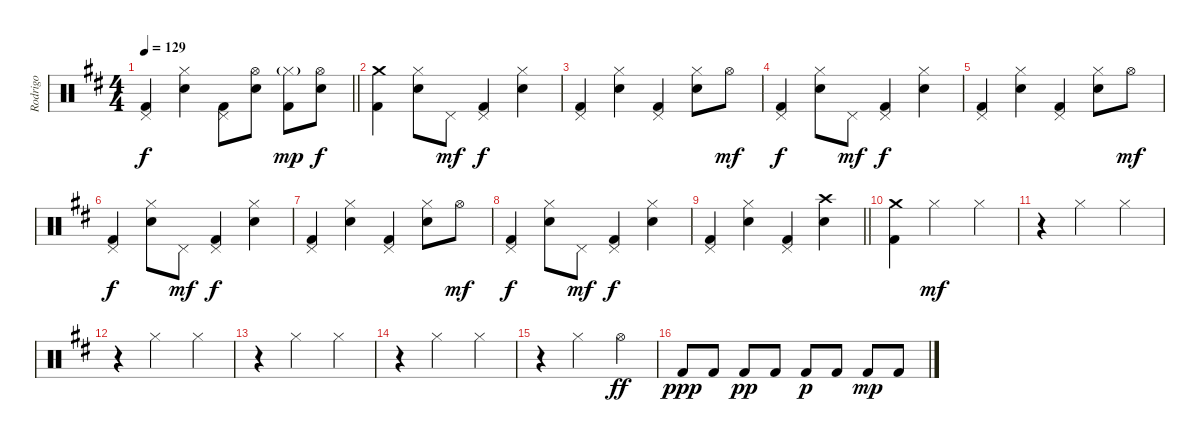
\track ("Rodrigo " "Rodrigo ") {instrument percussion}
\staff {score}
\articulation defaults
\ts (4 4)
\tempo 129
\clef neutral
\barLineRight lightlight
\ks d
("Pedal Hi-Hat (hit)" "Kick (hit) 2").4{dy f} ("Hi-Hat (closed)" "Electric Snare (hit)").4 ("Pedal Hi-Hat (hit)" "Kick (hit) 2").8 ("Hi-Hat (open)" "Electric Snare (hit)").8 ("Hi-Hat (closed)"{g} "Kick (hit) 2").8{dy mp} ("Hi-Hat (open)" "Electric Snare (hit)").8{dy f} |
("Crash medium (hit)" "Kick (hit) 2").4 ("Hi-Hat (closed)" "Electric Snare (hit)").8 "Pedal Hi-Hat (hit)".8{dy mf} ("Pedal Hi-Hat (hit)" "Kick (hit) 2").4{dy f} ("Hi-Hat (closed)" "Electric Snare (hit)").4 |
("Pedal Hi-Hat (hit)" "Kick (hit) 2").4 ("Hi-Hat (closed)" "Electric Snare (hit)").4 ("Pedal Hi-Hat (hit)" "Kick (hit) 2").4 ("Hi-Hat (closed)" "Electric Snare (hit)").8 "Hi-Hat (open)".8{dy mf} |
("Pedal Hi-Hat (hit)" "Kick (hit) 2").4{dy f} ("Hi-Hat (closed)" "Electric Snare (hit)").8 "Pedal Hi-Hat (hit)".8{dy mf} ("Pedal Hi-Hat (hit)" "Kick (hit) 2").4{dy f} ("Hi-Hat (closed)" "Electric Snare (hit)").4 |
("Pedal Hi-Hat (hit)" "Kick (hit) 2").4 ("Hi-Hat (closed)" "Electric Snare (hit)").4 ("Pedal Hi-Hat (hit)" "Kick (hit) 2").4 ("Hi-Hat (closed)" "Electric Snare (hit)").8 "Hi-Hat (open)".8{dy mf} |
("Pedal Hi-Hat (hit)" "Kick (hit) 2").4{dy f} ("Hi-Hat (closed)" "Electric Snare (hit)").8 "Pedal Hi-Hat (hit)".8{dy mf} ("Pedal Hi-Hat (hit)" "Kick (hit) 2").4{dy f} ("Hi-Hat (closed)" "Electric Snare (hit)").4 |
("Pedal Hi-Hat (hit)" "Kick (hit) 2").4 ("Hi-Hat (closed)" "Electric Snare (hit)").4 ("Pedal Hi-Hat (hit)" "Kick (hit) 2").4 ("Hi-Hat (closed)" "Electric Snare (hit)").8 "Hi-Hat (open)".8{dy mf} |
("Pedal Hi-Hat (hit)" "Kick (hit) 2").4{dy f} ("Hi-Hat (closed)" "Electric Snare (hit)").8 "Pedal Hi-Hat (hit)".8{dy mf} ("Pedal Hi-Hat (hit)" "Kick (hit) 2").4{dy f} ("Hi-Hat (closed)" "Electric Snare (hit)").4 |
\barLineRight lightlight
("Pedal Hi-Hat (hit)" "Kick (hit) 2").4 ("Hi-Hat (closed)" "Electric Snare (hit)").4 ("Pedal Hi-Hat (hit)" "Kick (hit) 2").4 ("Crash high (hit)" "Electric Snare (hit)").4 |
("Crash medium (hit)" "Kick (hit) 2").4 "Hi-Hat (closed)".2{dy mf} "Hi-Hat (closed)".4 |
r.4 "Hi-Hat (closed)".2 "Hi-Hat (closed)".4 |
r.4 "Hi-Hat (closed)".2 "Hi-Hat (closed)".4 |
r.4 "Hi-Hat (closed)".2 "Hi-Hat (closed)".4 |
r.4 "Hi-Hat (closed)".2 "Hi-Hat (closed)".4 |
r.4 "Hi-Hat (closed)".2 "Hi-Hat (open)".4{dy ff} |
"Kick (hit) 2".8{dy ppp} "Kick (hit) 2".8 "Kick (hit) 2".8{dy pp} "Kick (hit) 2".8 "Kick (hit) 2".8{dy p} "Kick (hit) 2".8 "Kick (hit) 2".8{dy mp} "Kick (hit) 2".8
